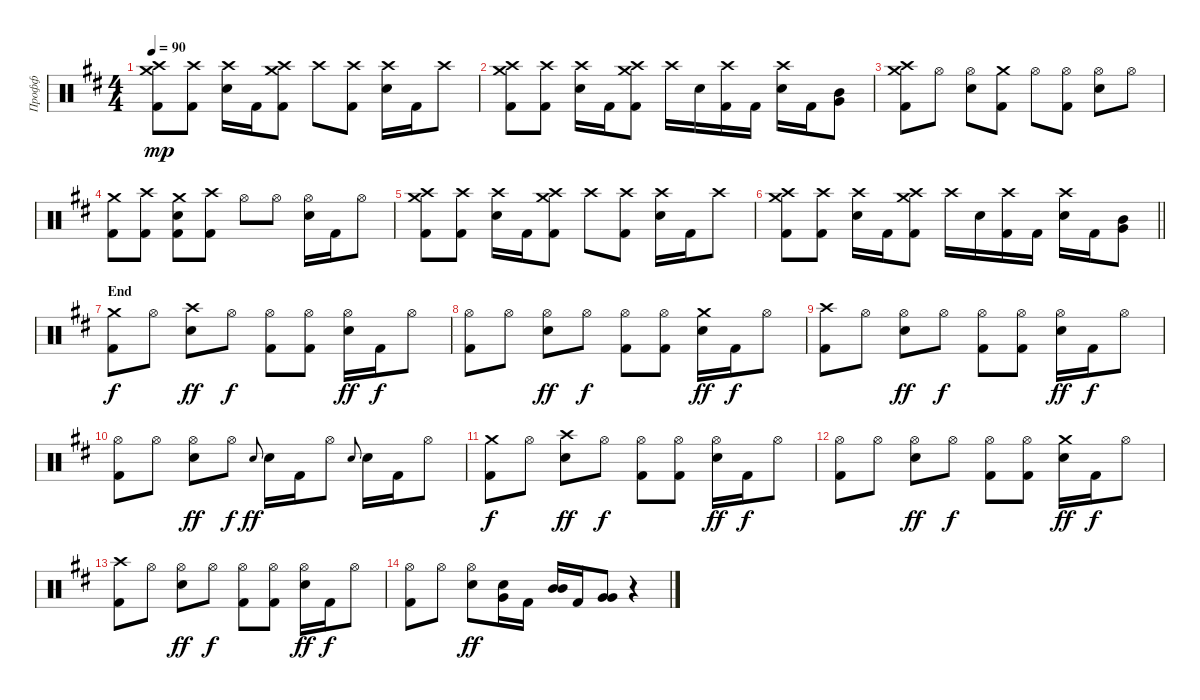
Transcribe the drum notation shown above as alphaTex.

\track ("Профф" "Профф") {instrument percussion}
\staff {score}
\articulation defaults
\ts (4 4)
\tempo 90
\clef neutral
\ks bminor
("Crash high (hit)" "Crash medium (hit)" "Kick (hit) 2").8{dy mp} ("Crash high (hit)" "Kick (hit) 2").8 ("Crash high (hit)" "Electric Snare (hit)").16 "Kick (hit) 2".16 ("Crash high (hit)" "Crash medium (hit)" "Kick (hit) 2").8 "Crash high (hit)".8 ("Crash high (hit)" "Kick (hit) 2").8 ("Crash high (hit)" "Electric Snare (hit)").16 "Kick (hit) 2".16 "Crash high (hit)".8 |
("Crash high (hit)" "Crash medium (hit)" "Kick (hit) 2").8 ("Crash high (hit)" "Kick (hit) 2").8 ("Crash high (hit)" "Electric Snare (hit)").16 "Kick (hit) 2".16 ("Crash high (hit)" "Crash medium (hit)" "Kick (hit) 2").8 "Crash high (hit)".16 "Electric Snare (hit)".16 ("Crash high (hit)" "Kick (hit) 2").16 "Kick (hit) 2".16 ("Crash high (hit)" "Electric Snare (hit)").16 "Kick (hit) 2".16 ("Mid Tom (hit)" "Very Low Tom (hit)").8 |
("Crash medium (hit)" "Crash high (hit)" "Kick (hit) 2").8 "Hi-Hat (open)".8 ("Hi-Hat (open)" "Electric Snare (hit)").8 ("Crash medium (hit)" "Kick (hit) 2").8 "Hi-Hat (open)".8 ("Hi-Hat (open)" "Kick (hit) 2").8 ("Hi-Hat (open)" "Electric Snare (hit)").8 "Hi-Hat (open)".8 |
("Crash medium (hit)" "Kick (hit) 2").8 ("Crash high (hit)" "Kick (hit) 2").8 ("Crash medium (hit)" "Electric Snare (hit)" "Kick (hit) 2").8 ("Crash high (hit)" "Kick (hit) 2").8 "Hi-Hat (open)".8 "Hi-Hat (open)".8 ("Hi-Hat (open)" "Electric Snare (hit)").16 "Kick (hit) 2".16 "Hi-Hat (open)".8 |
("Crash high (hit)" "Crash medium (hit)" "Kick (hit) 2").8 ("Crash high (hit)" "Kick (hit) 2").8 ("Crash high (hit)" "Electric Snare (hit)").16 "Kick (hit) 2".16 ("Crash high (hit)" "Crash medium (hit)" "Kick (hit) 2").8 "Crash high (hit)".8 ("Crash high (hit)" "Kick (hit) 2").8 ("Crash high (hit)" "Electric Snare (hit)").16 "Kick (hit) 2".16 "Crash high (hit)".8 |
\barLineRight lightlight
("Crash high (hit)" "Crash medium (hit)" "Kick (hit) 2").8 ("Crash high (hit)" "Kick (hit) 2").8 ("Crash high (hit)" "Electric Snare (hit)").16 "Kick (hit) 2".16 ("Crash high (hit)" "Crash medium (hit)" "Kick (hit) 2").8 "Crash high (hit)".16 "Electric Snare (hit)".16 ("Crash high (hit)" "Kick (hit) 2").16 "Kick (hit) 2".16 ("Crash high (hit)" "Electric Snare (hit)").16 "Kick (hit) 2".16 ("Mid Tom (hit)" "Very Low Tom (hit)").8 |
\section ("" "End")
("Crash medium (hit)" "Kick (hit) 2").8{dy f} "Hi-Hat (open)".8 ("Crash high (hit)" "Electric Snare (hit)").8{dy ff} "Hi-Hat (open)".8{dy f} ("Hi-Hat (open)" "Kick (hit) 2").8 ("Hi-Hat (open)" "Kick (hit) 2").8 ("Hi-Hat (open)" "Electric Snare (hit)").16{dy ff} "Kick (hit) 2".16{dy f} "Hi-Hat (open)".8 |
("Hi-Hat (open)" "Kick (hit) 2").8 "Hi-Hat (open)".8 ("Hi-Hat (open)" "Electric Snare (hit)").8{dy ff} "Hi-Hat (open)".8{dy f} ("Hi-Hat (open)" "Kick (hit) 2").8 ("Hi-Hat (open)" "Kick (hit) 2").8 ("Crash medium (hit)" "Electric Snare (hit)").16{dy ff} "Kick (hit) 2".16{dy f} "Hi-Hat (open)".8 |
("Crash high (hit)" "Kick (hit) 2").8 "Hi-Hat (open)".8 ("Hi-Hat (open)" "Electric Snare (hit)").8{dy ff} "Hi-Hat (open)".8{dy f} ("Hi-Hat (open)" "Kick (hit) 2").8 ("Hi-Hat (open)" "Kick (hit) 2").8 ("Hi-Hat (open)" "Electric Snare (hit)").16{dy ff} "Kick (hit) 2".16{dy f} "Hi-Hat (open)".8 |
("Hi-Hat (open)" "Kick (hit) 2").8 "Hi-Hat (open)".8 ("Hi-Hat (open)" "Electric Snare (hit)").8{dy ff} "Hi-Hat (open)".8{dy f} "Electric Snare (hit)".8{gr onbeat dy ff} "Electric Snare (hit)".16 "Kick (hit) 2".16 "Hi-Hat (open)".8 "Electric Snare (hit)".8{gr onbeat} "Electric Snare (hit)".16 "Kick (hit) 2".16 "Hi-Hat (open)".8 |
("Crash medium (hit)" "Kick (hit) 2").8{dy f} "Hi-Hat (open)".8 ("Crash high (hit)" "Electric Snare (hit)").8{dy ff} "Hi-Hat (open)".8{dy f} ("Hi-Hat (open)" "Kick (hit) 2").8 ("Hi-Hat (open)" "Kick (hit) 2").8 ("Hi-Hat (open)" "Electric Snare (hit)").16{dy ff} "Kick (hit) 2".16{dy f} "Hi-Hat (open)".8 |
("Hi-Hat (open)" "Kick (hit) 2").8 "Hi-Hat (open)".8 ("Hi-Hat (open)" "Electric Snare (hit)").8{dy ff} "Hi-Hat (open)".8{dy f} ("Hi-Hat (open)" "Kick (hit) 2").8 ("Hi-Hat (open)" "Kick (hit) 2").8 ("Crash medium (hit)" "Electric Snare (hit)").16{dy ff} "Kick (hit) 2".16{dy f} "Hi-Hat (open)".8 |
("Crash high (hit)" "Kick (hit) 2").8 "Hi-Hat (open)".8 ("Hi-Hat (open)" "Electric Snare (hit)").8{dy ff} "Hi-Hat (open)".8{dy f} ("Hi-Hat (open)" "Kick (hit) 2").8 ("Hi-Hat (open)" "Kick (hit) 2").8 ("Hi-Hat (open)" "Electric Snare (hit)").16{dy ff} "Kick (hit) 2".16{dy f} "Hi-Hat (open)".8 |
("Hi-Hat (open)" "Kick (hit) 2").8 "Hi-Hat (open)".8 ("Hi-Hat (open)" "Electric Snare (hit)").8{dy ff} ("Electric Snare (hit)" "Very Low Tom (hit)").16 "Kick (hit) 2".16 ("Mid Tom (hit)" "Mid Tom (hit)").16 "Kick (hit) 2".16 ("Very Low Tom (hit)" "Very Low Tom (hit)").8 r.4
